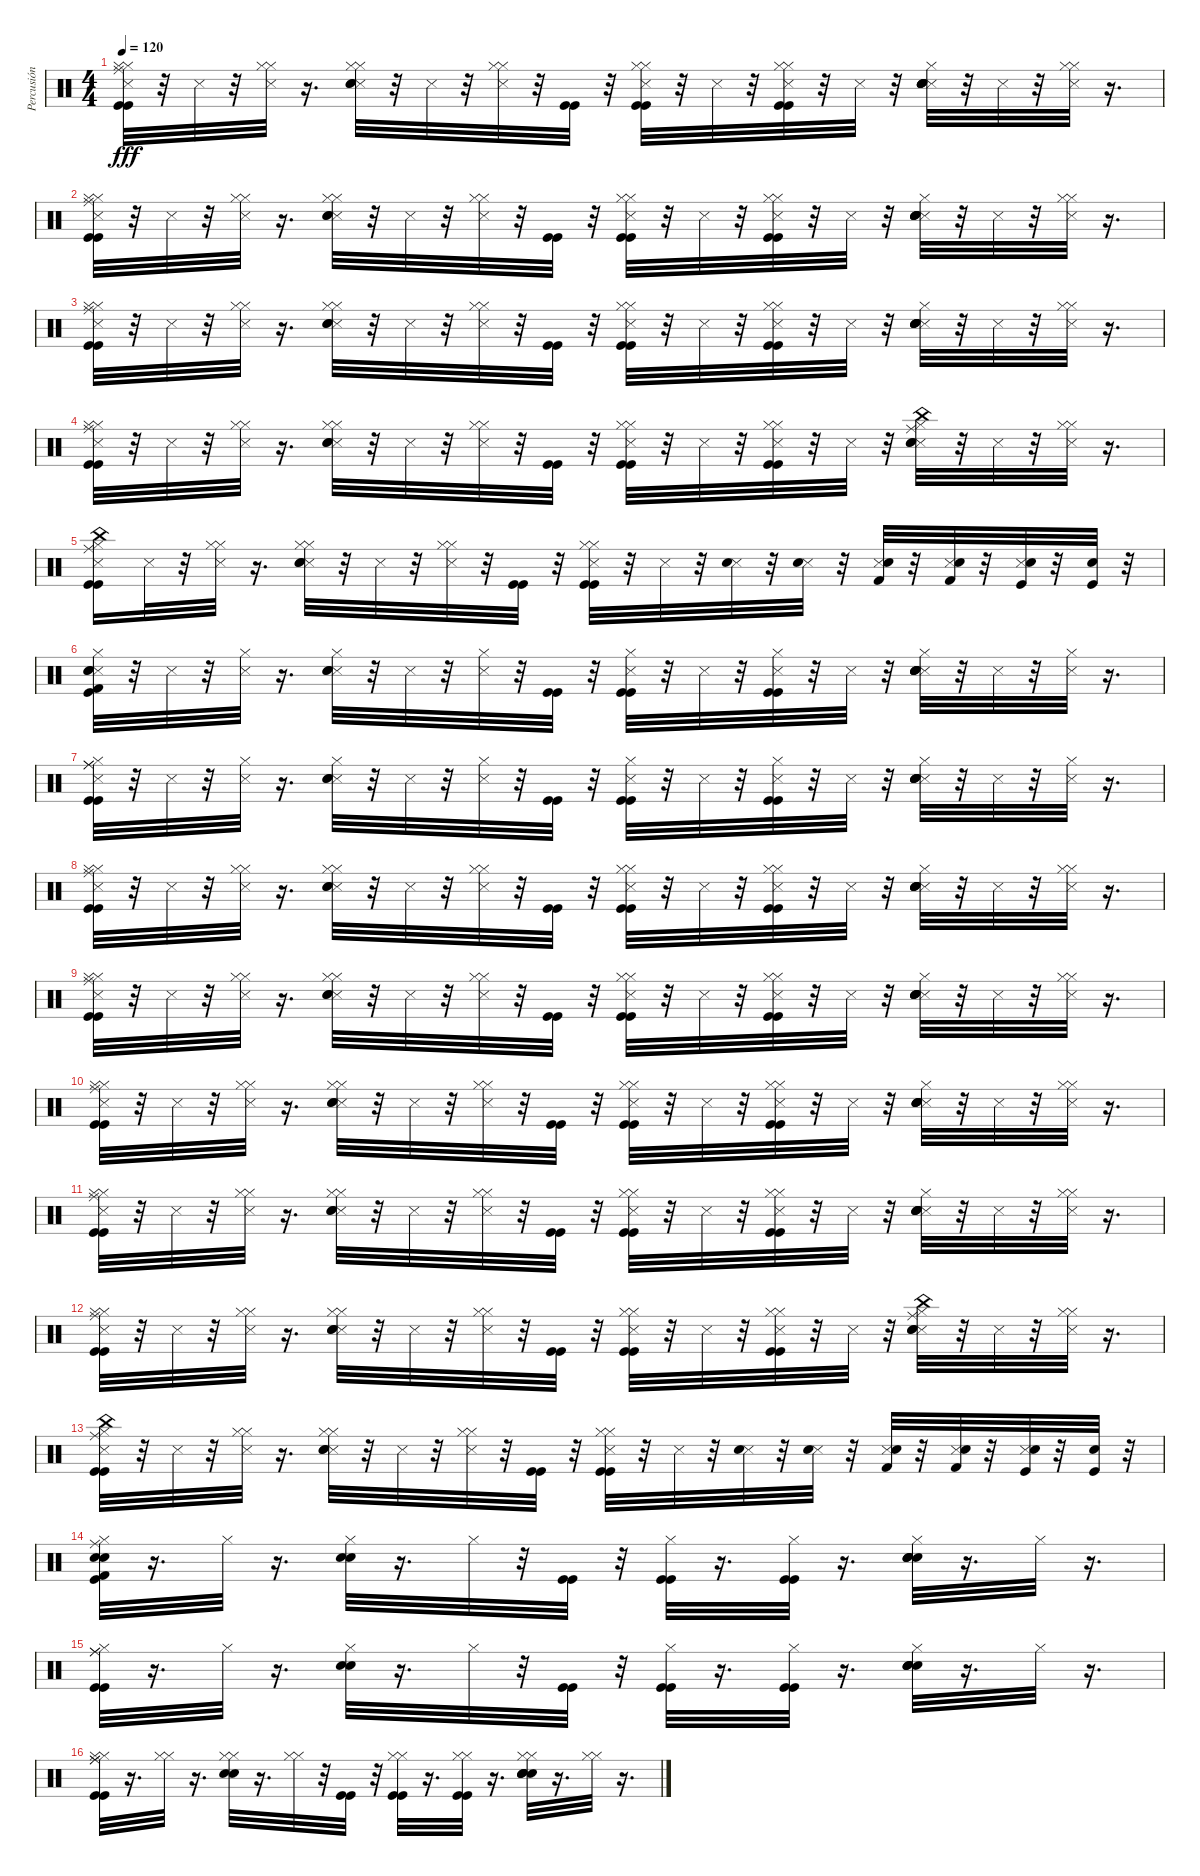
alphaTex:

\track ("Percusión" "Percusión") {instrument percussion}
\staff {score}
\articulation defaults
\ts (4 4)
\tempo 120
\clef neutral
\ks c
("Snare (side stick) 3" "Kick (hit)" "Hi-Hat (closed)" "Ride (middle)" "Kick (hit)" "Hi-Hat (closed)").32{dy fff} r.32 "Snare (side stick) 3".32 r.32 ("Snare (side stick) 3" "Hi-Hat (closed)" "Hi-Hat (closed)").32 r.16{d} ("Snare (side stick) 3" "Snare (hit) 2" "Electric Snare (hit)" "Hi-Hat (closed)" "Hi-Hat (closed)").32 r.32 "Snare (side stick) 3".32 r.32 ("Snare (side stick) 3" "Hi-Hat (closed)" "Hi-Hat (closed)").32 r.32 ("Kick (hit)" "Kick (hit)").32 r.32 ("Snare (side stick) 3" "Kick (hit)" "Hi-Hat (closed)" "Kick (hit)" "Hi-Hat (closed)").32 r.32 "Snare (side stick) 3".32 r.32 ("Snare (side stick) 3" "Kick (hit)" "Hi-Hat (closed)" "Kick (hit)" "Hi-Hat (closed)").32 r.32 "Snare (side stick) 3".32 r.32 ("Snare (side stick) 3" "Snare (hit) 2" "Electric Snare (hit)" "Hi-Hat (closed)" "Snare (hit) 2" "Electric Snare (hit)").32 r.32 "Snare (side stick) 3".32 r.32 ("Snare (side stick) 3" "Hi-Hat (closed)" "Hi-Hat (closed)").32 r.16{d} |
("Snare (side stick) 3" "Kick (hit)" "Hi-Hat (closed)" "Ride (middle)" "Kick (hit)" "Hi-Hat (closed)").32 r.32 "Snare (side stick) 3".32 r.32 ("Snare (side stick) 3" "Hi-Hat (closed)" "Hi-Hat (closed)").32 r.16{d} ("Snare (side stick) 3" "Snare (hit) 2" "Electric Snare (hit)" "Hi-Hat (closed)" "Hi-Hat (closed)").32 r.32 "Snare (side stick) 3".32 r.32 ("Snare (side stick) 3" "Hi-Hat (closed)" "Hi-Hat (closed)").32 r.32 ("Kick (hit)" "Kick (hit)").32 r.32 ("Snare (side stick) 3" "Kick (hit)" "Hi-Hat (closed)" "Kick (hit)" "Hi-Hat (closed)").32 r.32 "Snare (side stick) 3".32 r.32 ("Snare (side stick) 3" "Kick (hit)" "Hi-Hat (closed)" "Kick (hit)" "Hi-Hat (closed)").32 r.32 "Snare (side stick) 3".32 r.32 ("Snare (side stick) 3" "Snare (hit) 2" "Electric Snare (hit)" "Hi-Hat (closed)" "Snare (hit) 2" "Electric Snare (hit)").32 r.32 "Snare (side stick) 3".32 r.32 ("Snare (side stick) 3" "Hi-Hat (closed)" "Hi-Hat (closed)").32 r.16{d} |
("Snare (side stick) 3" "Kick (hit)" "Hi-Hat (closed)" "Ride (middle)" "Kick (hit)" "Hi-Hat (closed)").32 r.32 "Snare (side stick) 3".32 r.32 ("Snare (side stick) 3" "Hi-Hat (closed)" "Hi-Hat (closed)").32 r.16{d} ("Snare (side stick) 3" "Snare (hit) 2" "Electric Snare (hit)" "Hi-Hat (closed)" "Hi-Hat (closed)").32 r.32 "Snare (side stick) 3".32 r.32 ("Snare (side stick) 3" "Hi-Hat (closed)" "Hi-Hat (closed)").32 r.32 ("Kick (hit)" "Kick (hit)").32 r.32 ("Snare (side stick) 3" "Kick (hit)" "Hi-Hat (closed)" "Kick (hit)" "Hi-Hat (closed)").32 r.32 "Snare (side stick) 3".32 r.32 ("Snare (side stick) 3" "Kick (hit)" "Hi-Hat (closed)" "Kick (hit)" "Hi-Hat (closed)").32 r.32 "Snare (side stick) 3".32 r.32 ("Snare (side stick) 3" "Snare (hit) 2" "Electric Snare (hit)" "Hi-Hat (closed)" "Snare (hit) 2" "Electric Snare (hit)").32 r.32 "Snare (side stick) 3".32 r.32 ("Snare (side stick) 3" "Hi-Hat (closed)" "Hi-Hat (closed)").32 r.16{d} |
("Snare (side stick) 3" "Kick (hit)" "Hi-Hat (closed)" "Ride (middle)" "Kick (hit)" "Hi-Hat (closed)").32 r.32 "Snare (side stick) 3".32 r.32 ("Snare (side stick) 3" "Hi-Hat (closed)" "Hi-Hat (closed)").32 r.16{d} ("Snare (side stick) 3" "Electric Snare (hit)" "Snare (hit) 2" "Hi-Hat (closed)" "Hi-Hat (closed)").32 r.32 "Snare (side stick) 3".32 r.32 ("Snare (side stick) 3" "Hi-Hat (closed)" "Hi-Hat (closed)").32 r.32 ("Kick (hit)" "Kick (hit)").32 r.32 ("Snare (side stick) 3" "Kick (hit)" "Hi-Hat (closed)" "Kick (hit)" "Hi-Hat (closed)").32 r.32 "Snare (side stick) 3".32 r.32 ("Snare (side stick) 3" "Kick (hit)" "Hi-Hat (closed)" "Kick (hit)" "Hi-Hat (closed)").32 r.32 "Snare (side stick) 3".32 r.32 ("Snare (side stick) 3" "Ride (middle)" "China (hit)" "Snare (hit) 2" "Electric Snare (hit)" "Hi-Hat (closed)").32 r.32 "Snare (side stick) 3".32 r.32 ("Snare (side stick) 3" "Hi-Hat (closed)" "Hi-Hat (closed)").32 r.16{d} |
("Snare (side stick) 3" "China (hit)" "Kick (hit)" "Hi-Hat (closed)" "Ride (middle)" "Kick (hit)").16 "Snare (side stick) 3".32 r.32 ("Snare (side stick) 3" "Hi-Hat (closed)" "Hi-Hat (closed)").32 r.16{d} ("Snare (side stick) 3" "Snare (hit) 2" "Electric Snare (hit)" "Hi-Hat (closed)" "Hi-Hat (closed)").32 r.32 "Snare (side stick) 3".32 r.32 ("Snare (side stick) 3" "Hi-Hat (closed)" "Hi-Hat (closed)").32 r.32 ("Kick (hit)" "Kick (hit)").32 r.32 ("Snare (side stick) 3" "Kick (hit)" "Hi-Hat (closed)" "Kick (hit)" "Hi-Hat (closed)").32 r.32 "Snare (side stick) 3".32 r.32 ("Snare (side stick) 3" "Electric Snare (hit)").32 r.32 ("Snare (side stick) 3" "Electric Snare (hit)").32 r.32 ("Snare (side stick) 3" "Kick (hit) 2" "Electric Snare (hit)").32 r.32 ("Snare (side stick) 3" "Kick (hit) 2" "Electric Snare (hit)").32 r.32 ("Snare (side stick) 3" "Snare (hit) 2" "Kick (hit)").32 r.32 ("Snare (hit) 2" "Kick (hit)").32 r.32 |
("Snare (side stick) 3" "Kick (hit) 2" "Snare (hit) 2" "Electric Snare (hit)" "Hi-Hat (closed)" "Kick (hit)").32 r.32 "Snare (side stick) 3".32 r.32 ("Snare (side stick) 3" "Hi-Hat (closed)").32 r.16{d} ("Snare (side stick) 3" "Snare (hit) 2" "Electric Snare (hit)" "Hi-Hat (closed)").32 r.32 "Snare (side stick) 3".32 r.32 ("Snare (side stick) 3" "Hi-Hat (closed)").32 r.32 ("Kick (hit)" "Kick (hit)").32 r.32 ("Snare (side stick) 3" "Hi-Hat (closed)" "Kick (hit)" "Kick (hit)").32 r.32 "Snare (side stick) 3".32 r.32 ("Snare (side stick) 3" "Hi-Hat (closed)" "Kick (hit)" "Kick (hit)").32 r.32 "Snare (side stick) 3".32 r.32 ("Snare (side stick) 3" "Hi-Hat (closed)" "Snare (hit) 2" "Electric Snare (hit)" "Snare (hit) 2" "Electric Snare (hit)").32 r.32 "Snare (side stick) 3".32 r.32 ("Snare (side stick) 3" "Hi-Hat (closed)").32 r.16{d} |
("Snare (side stick) 3" "Hi-Hat (closed)" "Kick (hit)" "Ride (middle)" "Kick (hit)" "Ride (middle)").32 r.32 "Snare (side stick) 3".32 r.32 ("Snare (side stick) 3" "Hi-Hat (closed)").32 r.16{d} ("Snare (side stick) 3" "Snare (hit) 2" "Electric Snare (hit)" "Hi-Hat (closed)").32 r.32 "Snare (side stick) 3".32 r.32 ("Snare (side stick) 3" "Hi-Hat (closed)").32 r.32 ("Kick (hit)" "Kick (hit)").32 r.32 ("Snare (side stick) 3" "Hi-Hat (closed)" "Kick (hit)" "Kick (hit)").32 r.32 "Snare (side stick) 3".32 r.32 ("Snare (side stick) 3" "Hi-Hat (closed)" "Kick (hit)" "Kick (hit)").32 r.32 "Snare (side stick) 3".32 r.32 ("Snare (side stick) 3" "Hi-Hat (closed)" "Snare (hit) 2" "Electric Snare (hit)" "Snare (hit) 2" "Electric Snare (hit)").32 r.32 "Snare (side stick) 3".32 r.32 ("Snare (side stick) 3" "Hi-Hat (closed)").32 r.16{d} |
("Snare (side stick) 3" "Kick (hit)" "Hi-Hat (closed)" "Ride (middle)" "Kick (hit)" "Hi-Hat (closed)").32 r.32 "Snare (side stick) 3".32 r.32 ("Snare (side stick) 3" "Hi-Hat (closed)" "Hi-Hat (closed)").32 r.16{d} ("Snare (side stick) 3" "Snare (hit) 2" "Electric Snare (hit)" "Hi-Hat (closed)" "Hi-Hat (closed)").32 r.32 "Snare (side stick) 3".32 r.32 ("Snare (side stick) 3" "Hi-Hat (closed)" "Hi-Hat (closed)").32 r.32 ("Kick (hit)" "Kick (hit)").32 r.32 ("Snare (side stick) 3" "Kick (hit)" "Hi-Hat (closed)" "Kick (hit)" "Hi-Hat (closed)").32 r.32 "Snare (side stick) 3".32 r.32 ("Snare (side stick) 3" "Kick (hit)" "Hi-Hat (closed)" "Kick (hit)" "Hi-Hat (closed)").32 r.32 "Snare (side stick) 3".32 r.32 ("Snare (side stick) 3" "Snare (hit) 2" "Electric Snare (hit)" "Hi-Hat (closed)" "Snare (hit) 2" "Electric Snare (hit)").32 r.32 "Snare (side stick) 3".32 r.32 ("Snare (side stick) 3" "Hi-Hat (closed)" "Hi-Hat (closed)").32 r.16{d} |
("Snare (side stick) 3" "Kick (hit)" "Hi-Hat (closed)" "Ride (middle)" "Kick (hit)" "Hi-Hat (closed)").32 r.32 "Snare (side stick) 3".32 r.32 ("Snare (side stick) 3" "Hi-Hat (closed)" "Hi-Hat (closed)").32 r.16{d} ("Snare (side stick) 3" "Snare (hit) 2" "Electric Snare (hit)" "Hi-Hat (closed)" "Hi-Hat (closed)").32 r.32 "Snare (side stick) 3".32 r.32 ("Snare (side stick) 3" "Hi-Hat (closed)" "Hi-Hat (closed)").32 r.32 ("Kick (hit)" "Kick (hit)").32 r.32 ("Snare (side stick) 3" "Kick (hit)" "Hi-Hat (closed)" "Kick (hit)" "Hi-Hat (closed)").32 r.32 "Snare (side stick) 3".32 r.32 ("Snare (side stick) 3" "Kick (hit)" "Hi-Hat (closed)" "Kick (hit)" "Hi-Hat (closed)").32 r.32 "Snare (side stick) 3".32 r.32 ("Snare (side stick) 3" "Snare (hit) 2" "Electric Snare (hit)" "Hi-Hat (closed)" "Snare (hit) 2" "Electric Snare (hit)").32 r.32 "Snare (side stick) 3".32 r.32 ("Snare (side stick) 3" "Hi-Hat (closed)" "Hi-Hat (closed)").32 r.16{d} |
("Snare (side stick) 3" "Kick (hit)" "Hi-Hat (closed)" "Ride (middle)" "Kick (hit)" "Hi-Hat (closed)").32 r.32 "Snare (side stick) 3".32 r.32 ("Snare (side stick) 3" "Hi-Hat (closed)" "Hi-Hat (closed)").32 r.16{d} ("Snare (side stick) 3" "Snare (hit) 2" "Electric Snare (hit)" "Hi-Hat (closed)" "Hi-Hat (closed)").32 r.32 "Snare (side stick) 3".32 r.32 ("Snare (side stick) 3" "Hi-Hat (closed)" "Hi-Hat (closed)").32 r.32 ("Kick (hit)" "Kick (hit)").32 r.32 ("Snare (side stick) 3" "Kick (hit)" "Hi-Hat (closed)" "Kick (hit)" "Hi-Hat (closed)").32 r.32 "Snare (side stick) 3".32 r.32 ("Snare (side stick) 3" "Kick (hit)" "Hi-Hat (closed)" "Kick (hit)" "Hi-Hat (closed)").32 r.32 "Snare (side stick) 3".32 r.32 ("Snare (side stick) 3" "Snare (hit) 2" "Electric Snare (hit)" "Hi-Hat (closed)" "Snare (hit) 2" "Electric Snare (hit)").32 r.32 "Snare (side stick) 3".32 r.32 ("Snare (side stick) 3" "Hi-Hat (closed)" "Hi-Hat (closed)").32 r.16{d} |
("Snare (side stick) 3" "Kick (hit)" "Hi-Hat (closed)" "Ride (middle)" "Kick (hit)" "Hi-Hat (closed)").32 r.32 "Snare (side stick) 3".32 r.32 ("Snare (side stick) 3" "Hi-Hat (closed)" "Hi-Hat (closed)").32 r.16{d} ("Snare (side stick) 3" "Snare (hit) 2" "Electric Snare (hit)" "Hi-Hat (closed)" "Hi-Hat (closed)").32 r.32 "Snare (side stick) 3".32 r.32 ("Snare (side stick) 3" "Hi-Hat (closed)" "Hi-Hat (closed)").32 r.32 ("Kick (hit)" "Kick (hit)").32 r.32 ("Snare (side stick) 3" "Kick (hit)" "Hi-Hat (closed)" "Kick (hit)" "Hi-Hat (closed)").32 r.32 "Snare (side stick) 3".32 r.32 ("Snare (side stick) 3" "Kick (hit)" "Hi-Hat (closed)" "Kick (hit)" "Hi-Hat (closed)").32 r.32 "Snare (side stick) 3".32 r.32 ("Snare (side stick) 3" "Snare (hit) 2" "Electric Snare (hit)" "Hi-Hat (closed)" "Snare (hit) 2" "Electric Snare (hit)").32 r.32 "Snare (side stick) 3".32 r.32 ("Snare (side stick) 3" "Hi-Hat (closed)" "Hi-Hat (closed)").32 r.16{d} |
("Snare (side stick) 3" "Kick (hit)" "Hi-Hat (closed)" "Ride (middle)" "Kick (hit)" "Hi-Hat (closed)").32 r.32 "Snare (side stick) 3".32 r.32 ("Snare (side stick) 3" "Hi-Hat (closed)" "Hi-Hat (closed)").32 r.16{d} ("Snare (side stick) 3" "Electric Snare (hit)" "Snare (hit) 2" "Hi-Hat (closed)" "Hi-Hat (closed)").32 r.32 "Snare (side stick) 3".32 r.32 ("Snare (side stick) 3" "Hi-Hat (closed)" "Hi-Hat (closed)").32 r.32 ("Kick (hit)" "Kick (hit)").32 r.32 ("Snare (side stick) 3" "Kick (hit)" "Hi-Hat (closed)" "Kick (hit)" "Hi-Hat (closed)").32 r.32 "Snare (side stick) 3".32 r.32 ("Snare (side stick) 3" "Kick (hit)" "Hi-Hat (closed)" "Kick (hit)" "Hi-Hat (closed)").32 r.32 "Snare (side stick) 3".32 r.32 ("Snare (side stick) 3" "Ride (middle)" "China (hit)" "Snare (hit) 2" "Electric Snare (hit)" "Hi-Hat (closed)").32 r.32 "Snare (side stick) 3".32 r.32 ("Snare (side stick) 3" "Hi-Hat (closed)" "Hi-Hat (closed)").32 r.16{d} |
("Snare (side stick) 3" "China (hit)" "Kick (hit)" "Hi-Hat (closed)" "Ride (middle)" "Kick (hit)").32 r.32 "Snare (side stick) 3".32 r.32 ("Snare (side stick) 3" "Hi-Hat (closed)" "Hi-Hat (closed)").32 r.16{d} ("Snare (side stick) 3" "Snare (hit) 2" "Electric Snare (hit)" "Hi-Hat (closed)" "Hi-Hat (closed)").32 r.32 "Snare (side stick) 3".32 r.32 ("Snare (side stick) 3" "Hi-Hat (closed)" "Hi-Hat (closed)").32 r.32 ("Kick (hit)" "Kick (hit)").32 r.32 ("Snare (side stick) 3" "Kick (hit)" "Hi-Hat (closed)" "Kick (hit)" "Hi-Hat (closed)").32 r.32 "Snare (side stick) 3".32 r.32 ("Snare (side stick) 3" "Electric Snare (hit)").32 r.32 ("Snare (side stick) 3" "Electric Snare (hit)").32 r.32 ("Snare (side stick) 3" "Kick (hit) 2" "Electric Snare (hit)").32 r.32 ("Snare (side stick) 3" "Kick (hit) 2" "Electric Snare (hit)").32 r.32 ("Snare (side stick) 3" "Snare (hit) 2" "Kick (hit)").32 r.32 ("Snare (hit) 2" "Kick (hit)").32 r.32 |
("Kick (hit) 2" "Snare (hit) 2" "Electric Snare (hit)" "Hi-Hat (closed)" "Kick (hit)" "Ride (middle)").32 r.16{d} "Hi-Hat (closed)".32 r.16{d} ("Snare (hit) 2" "Electric Snare (hit)" "Hi-Hat (closed)").32 r.16{d} "Hi-Hat (closed)".32 r.32 ("Kick (hit)" "Kick (hit)").32 r.32 ("Hi-Hat (closed)" "Kick (hit)" "Kick (hit)").32 r.16{d} ("Hi-Hat (closed)" "Kick (hit)" "Kick (hit)").32 r.16{d} ("Hi-Hat (closed)" "Snare (hit) 2" "Electric Snare (hit)" "Snare (hit) 2" "Electric Snare (hit)").32 r.16{d} "Hi-Hat (closed)".32 r.16{d} |
("Hi-Hat (closed)" "Kick (hit)" "Ride (middle)" "Kick (hit)" "Ride (middle)").32 r.16{d} "Hi-Hat (closed)".32 r.16{d} ("Snare (hit) 2" "Electric Snare (hit)" "Hi-Hat (closed)").32 r.16{d} "Hi-Hat (closed)".32 r.32 ("Kick (hit)" "Kick (hit)").32 r.32 ("Hi-Hat (closed)" "Kick (hit)" "Kick (hit)").32 r.16{d} ("Hi-Hat (closed)" "Kick (hit)" "Kick (hit)").32 r.16{d} ("Hi-Hat (closed)" "Snare (hit) 2" "Electric Snare (hit)" "Snare (hit) 2" "Electric Snare (hit)").32 r.16{d} "Hi-Hat (closed)".32 r.16{d} |
("Kick (hit)" "Hi-Hat (closed)" "Ride (middle)" "Kick (hit)" "Hi-Hat (closed)" "Ride (middle)").32 r.16{d} ("Hi-Hat (closed)" "Hi-Hat (closed)").32 r.16{d} ("Snare (hit) 2" "Electric Snare (hit)" "Hi-Hat (closed)" "Hi-Hat (closed)").32 r.16{d} ("Hi-Hat (closed)" "Hi-Hat (closed)").32 r.32 ("Kick (hit)" "Kick (hit)").32 r.32 ("Kick (hit)" "Hi-Hat (closed)" "Kick (hit)" "Hi-Hat (closed)").32 r.16{d} ("Kick (hit)" "Hi-Hat (closed)" "Kick (hit)" "Hi-Hat (closed)").32 r.16{d} ("Snare (hit) 2" "Electric Snare (hit)" "Hi-Hat (closed)" "Snare (hit) 2" "Electric Snare (hit)" "Hi-Hat (closed)").32 r.16{d} ("Hi-Hat (closed)" "Hi-Hat (closed)").32 r.16{d}
